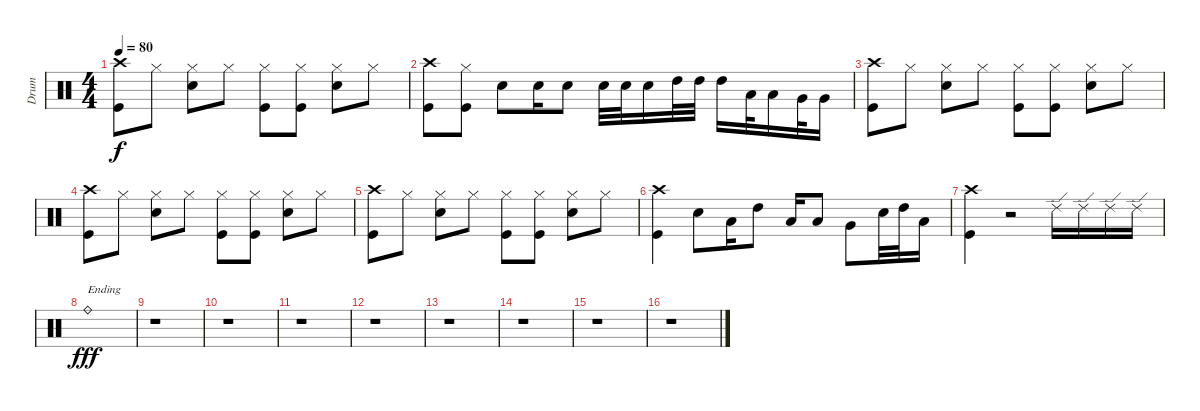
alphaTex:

\track ("Drum" "Drum") {instrument percussion}
\staff {score}
\articulation defaults
\ts (4 4)
\tempo 80
\clef neutral
\ks c
("Crash high (hit)" "Kick (hit)").8{dy f} "Hi-Hat (closed)".8 ("Hi-Hat (closed)" "Snare (hit) 2").8 "Hi-Hat (closed)".8 ("Hi-Hat (closed)" "Kick (hit)").8 ("Hi-Hat (closed)" "Kick (hit)").8 ("Hi-Hat (closed)" "Snare (hit) 2").8 "Hi-Hat (closed)".8 |
("Crash high (hit)" "Kick (hit)").8 ("Hi-Hat (closed)" "Kick (hit)").8 "Snare (hit) 2".8 "Snare (hit) 2".16 "Snare (hit) 2".8 "Snare (hit) 2".32 "Snare (hit) 2".32 "Snare (hit) 2".16 "High Tom (hit)".32 "High Tom (hit)".32 "High Tom (hit)".16 "Low Tom (hit)".32 "Low Tom (hit)".16 "Very Low Tom (hit)".32 "Very Low Tom (hit)".16 |
("Crash high (hit)" "Kick (hit)").8 "Hi-Hat (closed)".8 ("Hi-Hat (closed)" "Snare (hit) 2").8 "Hi-Hat (closed)".8 ("Hi-Hat (closed)" "Kick (hit)").8 ("Hi-Hat (closed)" "Kick (hit)").8 ("Hi-Hat (closed)" "Snare (hit) 2").8 "Hi-Hat (closed)".8 |
("Crash high (hit)" "Kick (hit)").8 "Hi-Hat (closed)".8 ("Hi-Hat (closed)" "Snare (hit) 2").8 "Hi-Hat (closed)".8 ("Hi-Hat (closed)" "Kick (hit)").8 ("Hi-Hat (closed)" "Kick (hit)").8 ("Hi-Hat (closed)" "Snare (hit) 2").8 "Hi-Hat (closed)".8 |
("Crash high (hit)" "Kick (hit)").8 "Hi-Hat (closed)".8 ("Hi-Hat (closed)" "Snare (hit) 2").8 "Hi-Hat (closed)".8 ("Hi-Hat (closed)" "Kick (hit)").8 ("Hi-Hat (closed)" "Kick (hit)").8 ("Hi-Hat (closed)" "Snare (hit) 2").8 "Hi-Hat (closed)".8 |
("Crash high (hit)" "Kick (hit)").4 "Snare (hit) 2".8 "Low Tom (hit)".16 "High Tom (hit)".8 "Low Tom (hit)".16 "Low Tom (hit)".8 "Very Low Tom (hit)".8 "Snare (hit) 2".32 "High Tom (hit)".32 "Low Tom (hit)".16 |
("Crash high (hit)" "Kick (hit)").4 r.2 "Ride (edge) 2".16 "Ride (edge) 2".16 "Ride (edge) 2".16 "Ride (edge) 2".16 |
"Ride (bell)".1{txt "Ending" dy fff} |
r.1 |
r.1 |
r.1 |
r.1 |
r.1 |
r.1 |
r.1 |
r.1
